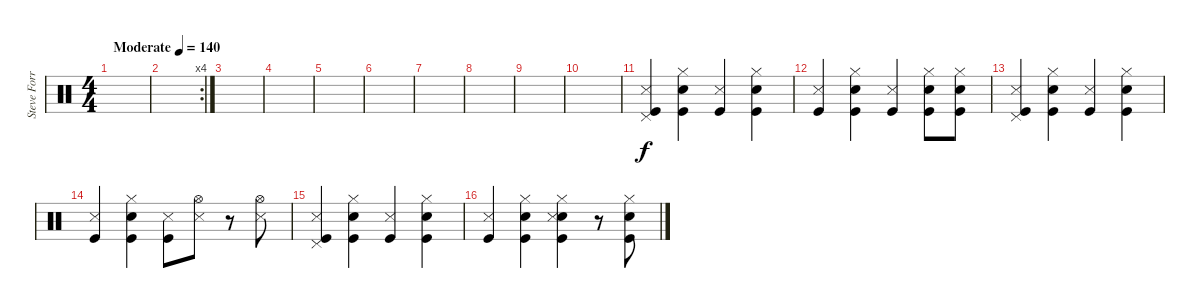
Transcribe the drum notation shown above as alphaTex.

\track ("Steve Forrest - Drums" "Steve Forr") {instrument percussion}
\staff {score}
\articulation defaults
\ts (4 4)
\tempo (140 "Moderate")
\clef neutral
\ks c
|
\rc 4
|
|
|
|
|
|
|
|
|
("Pedal Hi-Hat (hit)" "Snare (side stick) 3" "Kick (hit)").4 ("Snare (hit) 2" "Hi-Hat (closed)" "Kick (hit)").4 ("Snare (side stick) 3" "Kick (hit)").4 ("Snare (hit) 2" "Hi-Hat (closed)" "Kick (hit)").4 |
("Snare (side stick) 3" "Kick (hit)").4 ("Snare (hit) 2" "Hi-Hat (closed)" "Kick (hit)").4 ("Snare (side stick) 3" "Kick (hit)").4 ("Snare (hit) 2" "Hi-Hat (closed)" "Kick (hit)").8 ("Snare (hit) 2" "Hi-Hat (closed)" "Kick (hit)").8 |
("Pedal Hi-Hat (hit)" "Snare (side stick) 3" "Kick (hit)").4 ("Snare (hit) 2" "Hi-Hat (closed)" "Kick (hit)").4 ("Snare (side stick) 3" "Kick (hit)").4 ("Snare (hit) 2" "Hi-Hat (closed)" "Kick (hit)").4 |
("Snare (side stick) 3" "Kick (hit)").4 ("Snare (hit) 2" "Hi-Hat (closed)" "Kick (hit)").4 ("Snare (side stick) 3" "Kick (hit)").8 ("Hi-Hat (open)" "Snare (side stick) 3").8 r.8 ("Hi-Hat (open)" "Snare (side stick) 3").8 |
("Pedal Hi-Hat (hit)" "Snare (side stick) 3" "Kick (hit)").4 ("Snare (hit) 2" "Hi-Hat (closed)" "Kick (hit)").4 ("Snare (side stick) 3" "Kick (hit)").4 ("Snare (hit) 2" "Hi-Hat (closed)" "Kick (hit)").4 |
("Snare (side stick) 3" "Kick (hit)").4 ("Snare (hit) 2" "Hi-Hat (closed)" "Kick (hit)").4 ("Snare (hit) 2" "Hi-Hat (closed)" "Snare (side stick) 3" "Kick (hit)").4 r.8 ("Snare (hit) 2" "Hi-Hat (closed)" "Kick (hit)").8
